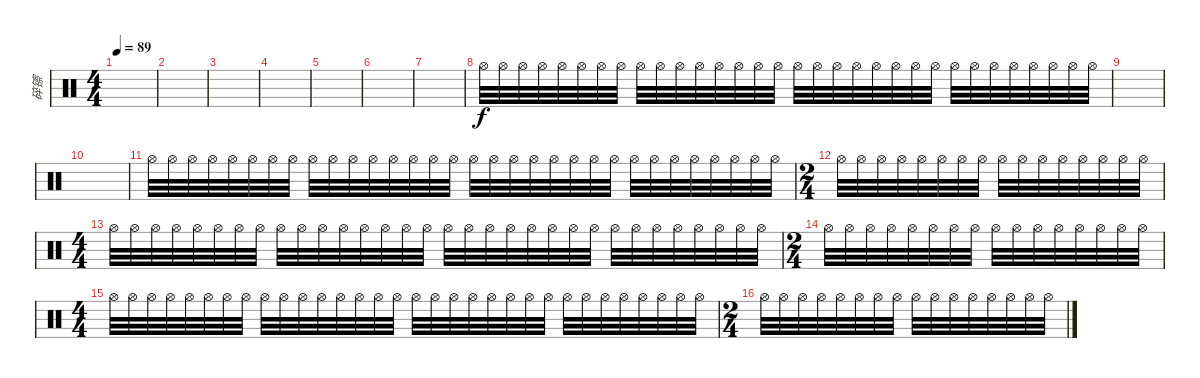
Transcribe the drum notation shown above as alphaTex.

\track ("碎镲" "碎镲") {instrument percussion}
\staff {score}
\articulation defaults
\ts (4 4)
\tempo 89
\clef neutral
\ks c
|
|
|
|
|
|
|
"Hi-Hat (open)".32 "Hi-Hat (open)".32 "Hi-Hat (open)".32 "Hi-Hat (open)".32 "Hi-Hat (open)".32 "Hi-Hat (open)".32 "Hi-Hat (open)".32 "Hi-Hat (open)".32 "Hi-Hat (open)".32 "Hi-Hat (open)".32 "Hi-Hat (open)".32 "Hi-Hat (open)".32 "Hi-Hat (open)".32 "Hi-Hat (open)".32 "Hi-Hat (open)".32 "Hi-Hat (open)".32 "Hi-Hat (open)".32 "Hi-Hat (open)".32 "Hi-Hat (open)".32 "Hi-Hat (open)".32 "Hi-Hat (open)".32 "Hi-Hat (open)".32 "Hi-Hat (open)".32 "Hi-Hat (open)".32 "Hi-Hat (open)".32 "Hi-Hat (open)".32 "Hi-Hat (open)".32 "Hi-Hat (open)".32 "Hi-Hat (open)".32 "Hi-Hat (open)".32 "Hi-Hat (open)".32 "Hi-Hat (open)".32 |
|
|
"Hi-Hat (open)".32 "Hi-Hat (open)".32 "Hi-Hat (open)".32 "Hi-Hat (open)".32 "Hi-Hat (open)".32 "Hi-Hat (open)".32 "Hi-Hat (open)".32 "Hi-Hat (open)".32 "Hi-Hat (open)".32 "Hi-Hat (open)".32 "Hi-Hat (open)".32 "Hi-Hat (open)".32 "Hi-Hat (open)".32 "Hi-Hat (open)".32 "Hi-Hat (open)".32 "Hi-Hat (open)".32 "Hi-Hat (open)".32 "Hi-Hat (open)".32 "Hi-Hat (open)".32 "Hi-Hat (open)".32 "Hi-Hat (open)".32 "Hi-Hat (open)".32 "Hi-Hat (open)".32 "Hi-Hat (open)".32 "Hi-Hat (open)".32 "Hi-Hat (open)".32 "Hi-Hat (open)".32 "Hi-Hat (open)".32 "Hi-Hat (open)".32 "Hi-Hat (open)".32 "Hi-Hat (open)".32 "Hi-Hat (open)".32 |
\ts (2 4)
"Hi-Hat (open)".32 "Hi-Hat (open)".32 "Hi-Hat (open)".32 "Hi-Hat (open)".32 "Hi-Hat (open)".32 "Hi-Hat (open)".32 "Hi-Hat (open)".32 "Hi-Hat (open)".32 "Hi-Hat (open)".32 "Hi-Hat (open)".32 "Hi-Hat (open)".32 "Hi-Hat (open)".32 "Hi-Hat (open)".32 "Hi-Hat (open)".32 "Hi-Hat (open)".32 "Hi-Hat (open)".32 |
\ts (4 4)
"Hi-Hat (open)".32 "Hi-Hat (open)".32 "Hi-Hat (open)".32 "Hi-Hat (open)".32 "Hi-Hat (open)".32 "Hi-Hat (open)".32 "Hi-Hat (open)".32 "Hi-Hat (open)".32 "Hi-Hat (open)".32 "Hi-Hat (open)".32 "Hi-Hat (open)".32 "Hi-Hat (open)".32 "Hi-Hat (open)".32 "Hi-Hat (open)".32 "Hi-Hat (open)".32 "Hi-Hat (open)".32 "Hi-Hat (open)".32 "Hi-Hat (open)".32 "Hi-Hat (open)".32 "Hi-Hat (open)".32 "Hi-Hat (open)".32 "Hi-Hat (open)".32 "Hi-Hat (open)".32 "Hi-Hat (open)".32 "Hi-Hat (open)".32 "Hi-Hat (open)".32 "Hi-Hat (open)".32 "Hi-Hat (open)".32 "Hi-Hat (open)".32 "Hi-Hat (open)".32 "Hi-Hat (open)".32 "Hi-Hat (open)".32 |
\ts (2 4)
"Hi-Hat (open)".32 "Hi-Hat (open)".32 "Hi-Hat (open)".32 "Hi-Hat (open)".32 "Hi-Hat (open)".32 "Hi-Hat (open)".32 "Hi-Hat (open)".32 "Hi-Hat (open)".32 "Hi-Hat (open)".32 "Hi-Hat (open)".32 "Hi-Hat (open)".32 "Hi-Hat (open)".32 "Hi-Hat (open)".32 "Hi-Hat (open)".32 "Hi-Hat (open)".32 "Hi-Hat (open)".32 |
\ts (4 4)
"Hi-Hat (open)".32 "Hi-Hat (open)".32 "Hi-Hat (open)".32 "Hi-Hat (open)".32 "Hi-Hat (open)".32 "Hi-Hat (open)".32 "Hi-Hat (open)".32 "Hi-Hat (open)".32 "Hi-Hat (open)".32 "Hi-Hat (open)".32 "Hi-Hat (open)".32 "Hi-Hat (open)".32 "Hi-Hat (open)".32 "Hi-Hat (open)".32 "Hi-Hat (open)".32 "Hi-Hat (open)".32 "Hi-Hat (open)".32 "Hi-Hat (open)".32 "Hi-Hat (open)".32 "Hi-Hat (open)".32 "Hi-Hat (open)".32 "Hi-Hat (open)".32 "Hi-Hat (open)".32 "Hi-Hat (open)".32 "Hi-Hat (open)".32 "Hi-Hat (open)".32 "Hi-Hat (open)".32 "Hi-Hat (open)".32 "Hi-Hat (open)".32 "Hi-Hat (open)".32 "Hi-Hat (open)".32 "Hi-Hat (open)".32 |
\ts (2 4)
"Hi-Hat (open)".32 "Hi-Hat (open)".32 "Hi-Hat (open)".32 "Hi-Hat (open)".32 "Hi-Hat (open)".32 "Hi-Hat (open)".32 "Hi-Hat (open)".32 "Hi-Hat (open)".32 "Hi-Hat (open)".32 "Hi-Hat (open)".32 "Hi-Hat (open)".32 "Hi-Hat (open)".32 "Hi-Hat (open)".32 "Hi-Hat (open)".32 "Hi-Hat (open)".32 "Hi-Hat (open)".32
